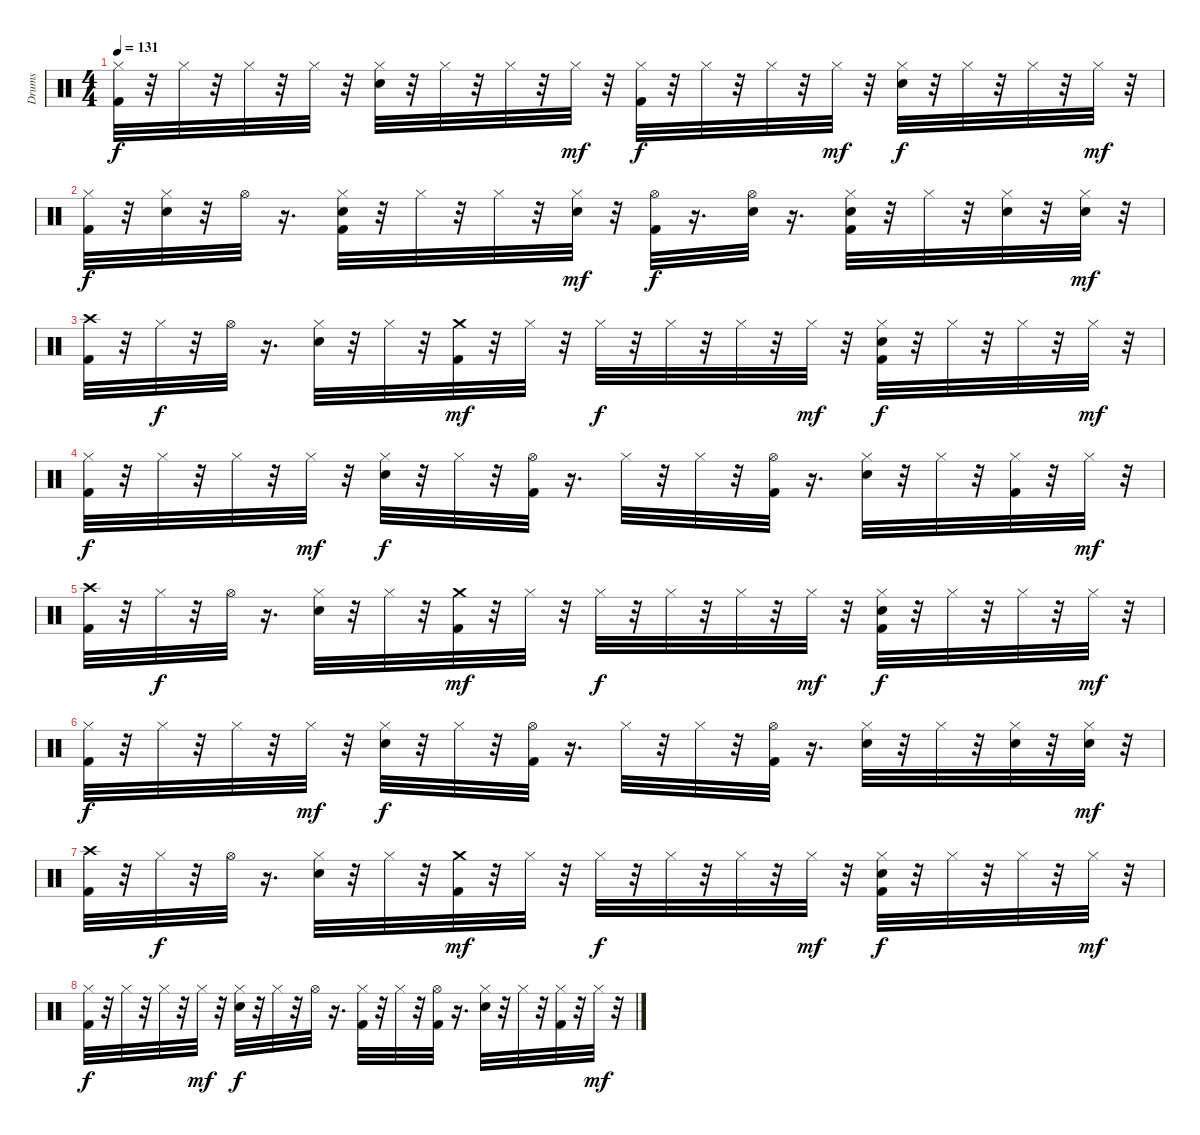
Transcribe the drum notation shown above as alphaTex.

\track ("Drums" "Drums") {instrument percussion}
\staff {score}
\articulation defaults
\ts (4 4)
\tempo 131
\clef neutral
\ks c
("Kick (hit) 2" "Hi-Hat (closed)").32{dy f} r.32 "Hi-Hat (closed)".32 r.32 "Hi-Hat (closed)".32 r.32 "Hi-Hat (closed)".32 r.32 ("Hi-Hat (closed)" "Snare (hit) 2").32 r.32 "Hi-Hat (closed)".32 r.32 "Hi-Hat (closed)".32 r.32 "Hi-Hat (closed)".32{dy mf} r.32 ("Hi-Hat (closed)" "Kick (hit) 2").32{dy f} r.32 "Hi-Hat (closed)".32 r.32 "Hi-Hat (closed)".32 r.32 "Hi-Hat (closed)".32{dy mf} r.32 ("Hi-Hat (closed)" "Snare (hit) 2").32{dy f} r.32 "Hi-Hat (closed)".32 r.32 "Hi-Hat (closed)".32 r.32 "Hi-Hat (closed)".32{dy mf} r.32 |
("Kick (hit) 2" "Hi-Hat (closed)").32{dy f} r.32 ("Snare (hit) 2" "Hi-Hat (closed)").32 r.32 "Hi-Hat (open)".32 r.16{d} ("Kick (hit) 2" "Snare (hit) 2" "Hi-Hat (closed)").32 r.32 "Hi-Hat (closed)".32 r.32 "Hi-Hat (closed)".32 r.32 ("Snare (hit) 2" "Hi-Hat (closed)").32{dy mf} r.32 ("Hi-Hat (open)" "Kick (hit) 2").32{dy f} r.16{d} ("Snare (hit) 2" "Hi-Hat (open)").32 r.16{d} ("Snare (hit) 2" "Hi-Hat (closed)" "Kick (hit) 2").32 r.32 "Hi-Hat (closed)".32 r.32 ("Snare (hit) 2" "Hi-Hat (closed)").32 r.32 ("Snare (hit) 2" "Hi-Hat (closed)").32{dy mf} r.32 |
("Kick (hit) 2" "Crash high (hit)").32 r.32 "Hi-Hat (closed)".32{dy f} r.32 "Hi-Hat (open)".32 r.16{d} ("Snare (hit) 2" "Hi-Hat (closed)").32 r.32 "Hi-Hat (closed)".32 r.32 ("Crash medium (hit)" "Kick (hit) 2").32{dy mf} r.32 "Hi-Hat (closed)".32 r.32 "Hi-Hat (closed)".32{dy f} r.32 "Hi-Hat (closed)".32 r.32 "Hi-Hat (closed)".32 r.32 "Hi-Hat (closed)".32{dy mf} r.32 ("Snare (hit) 2" "Hi-Hat (closed)" "Kick (hit) 2").32{dy f} r.32 "Hi-Hat (closed)".32 r.32 "Hi-Hat (closed)".32 r.32 "Hi-Hat (closed)".32{dy mf} r.32 |
("Kick (hit) 2" "Hi-Hat (closed)").32{dy f} r.32 "Hi-Hat (closed)".32 r.32 "Hi-Hat (closed)".32 r.32 "Hi-Hat (closed)".32{dy mf} r.32 ("Hi-Hat (closed)" "Snare (hit) 2").32{dy f} r.32 "Hi-Hat (closed)".32 r.32 ("Kick (hit) 2" "Hi-Hat (open)").32 r.16{d} "Hi-Hat (closed)".32 r.32 "Hi-Hat (closed)".32 r.32 ("Hi-Hat (open)" "Kick (hit) 2").32 r.16{d} ("Hi-Hat (closed)" "Snare (hit) 2").32 r.32 "Hi-Hat (closed)".32 r.32 ("Hi-Hat (closed)" "Kick (hit) 2").32 r.32 "Hi-Hat (closed)".32{dy mf} r.32 |
("Kick (hit) 2" "Crash high (hit)").32 r.32 "Hi-Hat (closed)".32{dy f} r.32 "Hi-Hat (open)".32 r.16{d} ("Snare (hit) 2" "Hi-Hat (closed)").32 r.32 "Hi-Hat (closed)".32 r.32 ("Crash medium (hit)" "Kick (hit) 2").32{dy mf} r.32 "Hi-Hat (closed)".32 r.32 "Hi-Hat (closed)".32{dy f} r.32 "Hi-Hat (closed)".32 r.32 "Hi-Hat (closed)".32 r.32 "Hi-Hat (closed)".32{dy mf} r.32 ("Snare (hit) 2" "Hi-Hat (closed)" "Kick (hit) 2").32{dy f} r.32 "Hi-Hat (closed)".32 r.32 "Hi-Hat (closed)".32 r.32 "Hi-Hat (closed)".32{dy mf} r.32 |
("Kick (hit) 2" "Hi-Hat (closed)").32{dy f} r.32 "Hi-Hat (closed)".32 r.32 "Hi-Hat (closed)".32 r.32 "Hi-Hat (closed)".32{dy mf} r.32 ("Hi-Hat (closed)" "Snare (hit) 2").32{dy f} r.32 "Hi-Hat (closed)".32 r.32 ("Hi-Hat (open)" "Kick (hit) 2").32 r.16{d} "Hi-Hat (closed)".32 r.32 "Hi-Hat (closed)".32 r.32 ("Hi-Hat (open)" "Kick (hit) 2").32 r.16{d} ("Hi-Hat (closed)" "Snare (hit) 2").32 r.32 "Hi-Hat (closed)".32 r.32 ("Hi-Hat (closed)" "Snare (hit) 2").32 r.32 ("Snare (hit) 2" "Hi-Hat (closed)").32{dy mf} r.32 |
("Kick (hit) 2" "Crash high (hit)").32 r.32 "Hi-Hat (closed)".32{dy f} r.32 "Hi-Hat (open)".32 r.16{d} ("Snare (hit) 2" "Hi-Hat (closed)").32 r.32 "Hi-Hat (closed)".32 r.32 ("Crash medium (hit)" "Kick (hit) 2").32{dy mf} r.32 "Hi-Hat (closed)".32 r.32 "Hi-Hat (closed)".32{dy f} r.32 "Hi-Hat (closed)".32 r.32 "Hi-Hat (closed)".32 r.32 "Hi-Hat (closed)".32{dy mf} r.32 ("Snare (hit) 2" "Hi-Hat (closed)" "Kick (hit) 2").32{dy f} r.32 "Hi-Hat (closed)".32 r.32 "Hi-Hat (closed)".32 r.32 "Hi-Hat (closed)".32{dy mf} r.32 |
("Kick (hit) 2" "Hi-Hat (closed)").32{dy f} r.32 "Hi-Hat (closed)".32 r.32 "Hi-Hat (closed)".32 r.32 "Hi-Hat (closed)".32{dy mf} r.32 ("Hi-Hat (closed)" "Snare (hit) 2").32{dy f} r.32 "Hi-Hat (closed)".32 r.32 "Hi-Hat (open)".32 r.16{d} ("Hi-Hat (closed)" "Kick (hit) 2").32 r.32 "Hi-Hat (closed)".32 r.32 ("Hi-Hat (open)" "Kick (hit) 2").32 r.16{d} ("Hi-Hat (closed)" "Snare (hit) 2").32 r.32 "Hi-Hat (closed)".32 r.32 ("Hi-Hat (closed)" "Kick (hit) 2").32 r.32 "Hi-Hat (closed)".32{dy mf} r.32
